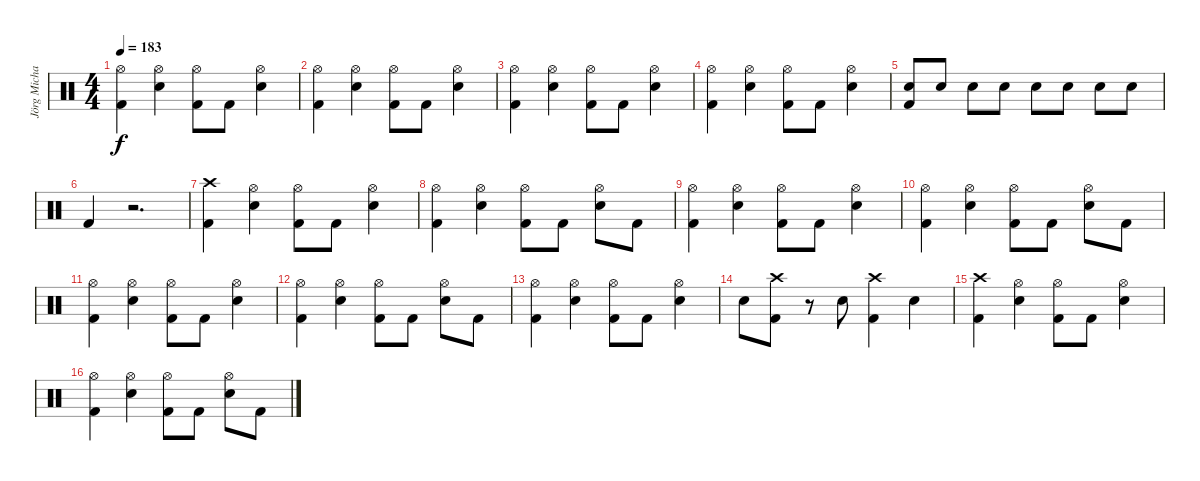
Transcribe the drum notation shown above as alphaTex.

\track ("Jörg Michael" "Jörg Micha") {instrument percussion}
\staff {score}
\articulation defaults
\ts (4 4)
\tempo 183
\clef neutral
\ks c
("Kick (hit) 2" "Hi-Hat (open)").4{dy f} ("Snare (hit) 2" "Hi-Hat (open)").4 ("Kick (hit) 2" "Hi-Hat (open)").8 "Kick (hit) 2".8 ("Snare (hit) 2" "Hi-Hat (open)").4 |
("Kick (hit) 2" "Hi-Hat (open)").4 ("Snare (hit) 2" "Hi-Hat (open)").4 ("Kick (hit) 2" "Hi-Hat (open)").8 "Kick (hit) 2".8 ("Snare (hit) 2" "Hi-Hat (open)").4 |
("Kick (hit) 2" "Hi-Hat (open)").4 ("Snare (hit) 2" "Hi-Hat (open)").4 ("Kick (hit) 2" "Hi-Hat (open)").8 "Kick (hit) 2".8 ("Snare (hit) 2" "Hi-Hat (open)").4 |
("Kick (hit) 2" "Hi-Hat (open)").4 ("Snare (hit) 2" "Hi-Hat (open)").4 ("Kick (hit) 2" "Hi-Hat (open)").8 "Kick (hit) 2".8 ("Snare (hit) 2" "Hi-Hat (open)").4 |
("Snare (hit) 2" "Kick (hit) 2").8 "Snare (hit) 2".8 "Snare (hit) 2".8 "Snare (hit) 2".8 "Snare (hit) 2".8 "Snare (hit) 2".8 "Snare (hit) 2".8 "Snare (hit) 2".8 |
"Kick (hit) 2".4 r.2{d} |
("Kick (hit) 2" "Crash high (hit)").4 ("Snare (hit) 2" "Hi-Hat (open)").4 ("Kick (hit) 2" "Hi-Hat (open)").8 "Kick (hit) 2".8 ("Snare (hit) 2" "Hi-Hat (open)").4 |
("Kick (hit) 2" "Hi-Hat (open)").4 ("Snare (hit) 2" "Hi-Hat (open)").4 ("Kick (hit) 2" "Hi-Hat (open)").8 "Kick (hit) 2".8 ("Snare (hit) 2" "Hi-Hat (open)").8 "Kick (hit) 2".8 |
("Kick (hit) 2" "Hi-Hat (open)").4 ("Snare (hit) 2" "Hi-Hat (open)").4 ("Kick (hit) 2" "Hi-Hat (open)").8 "Kick (hit) 2".8 ("Snare (hit) 2" "Hi-Hat (open)").4 |
("Kick (hit) 2" "Hi-Hat (open)").4 ("Snare (hit) 2" "Hi-Hat (open)").4 ("Kick (hit) 2" "Hi-Hat (open)").8 "Kick (hit) 2".8 ("Snare (hit) 2" "Hi-Hat (open)").8 "Kick (hit) 2".8 |
("Kick (hit) 2" "Hi-Hat (open)").4 ("Snare (hit) 2" "Hi-Hat (open)").4 ("Kick (hit) 2" "Hi-Hat (open)").8 "Kick (hit) 2".8 ("Snare (hit) 2" "Hi-Hat (open)").4 |
("Kick (hit) 2" "Hi-Hat (open)").4 ("Snare (hit) 2" "Hi-Hat (open)").4 ("Kick (hit) 2" "Hi-Hat (open)").8 "Kick (hit) 2".8 ("Snare (hit) 2" "Hi-Hat (open)").8 "Kick (hit) 2".8 |
("Kick (hit) 2" "Hi-Hat (open)").4 ("Snare (hit) 2" "Hi-Hat (open)").4 ("Kick (hit) 2" "Hi-Hat (open)").8 "Kick (hit) 2".8 ("Snare (hit) 2" "Hi-Hat (open)").4 |
"Snare (hit) 2".8 ("Kick (hit) 2" "Crash high (hit)").8 r.8 "Snare (hit) 2".8 ("Kick (hit) 2" "Crash high (hit)").4 "Snare (hit) 2".4 |
("Kick (hit) 2" "Crash high (hit)").4 ("Snare (hit) 2" "Hi-Hat (open)").4 ("Kick (hit) 2" "Hi-Hat (open)").8 "Kick (hit) 2".8 ("Snare (hit) 2" "Hi-Hat (open)").4 |
("Kick (hit) 2" "Hi-Hat (open)").4 ("Snare (hit) 2" "Hi-Hat (open)").4 ("Kick (hit) 2" "Hi-Hat (open)").8 "Kick (hit) 2".8 ("Snare (hit) 2" "Hi-Hat (open)").8 "Kick (hit) 2".8
